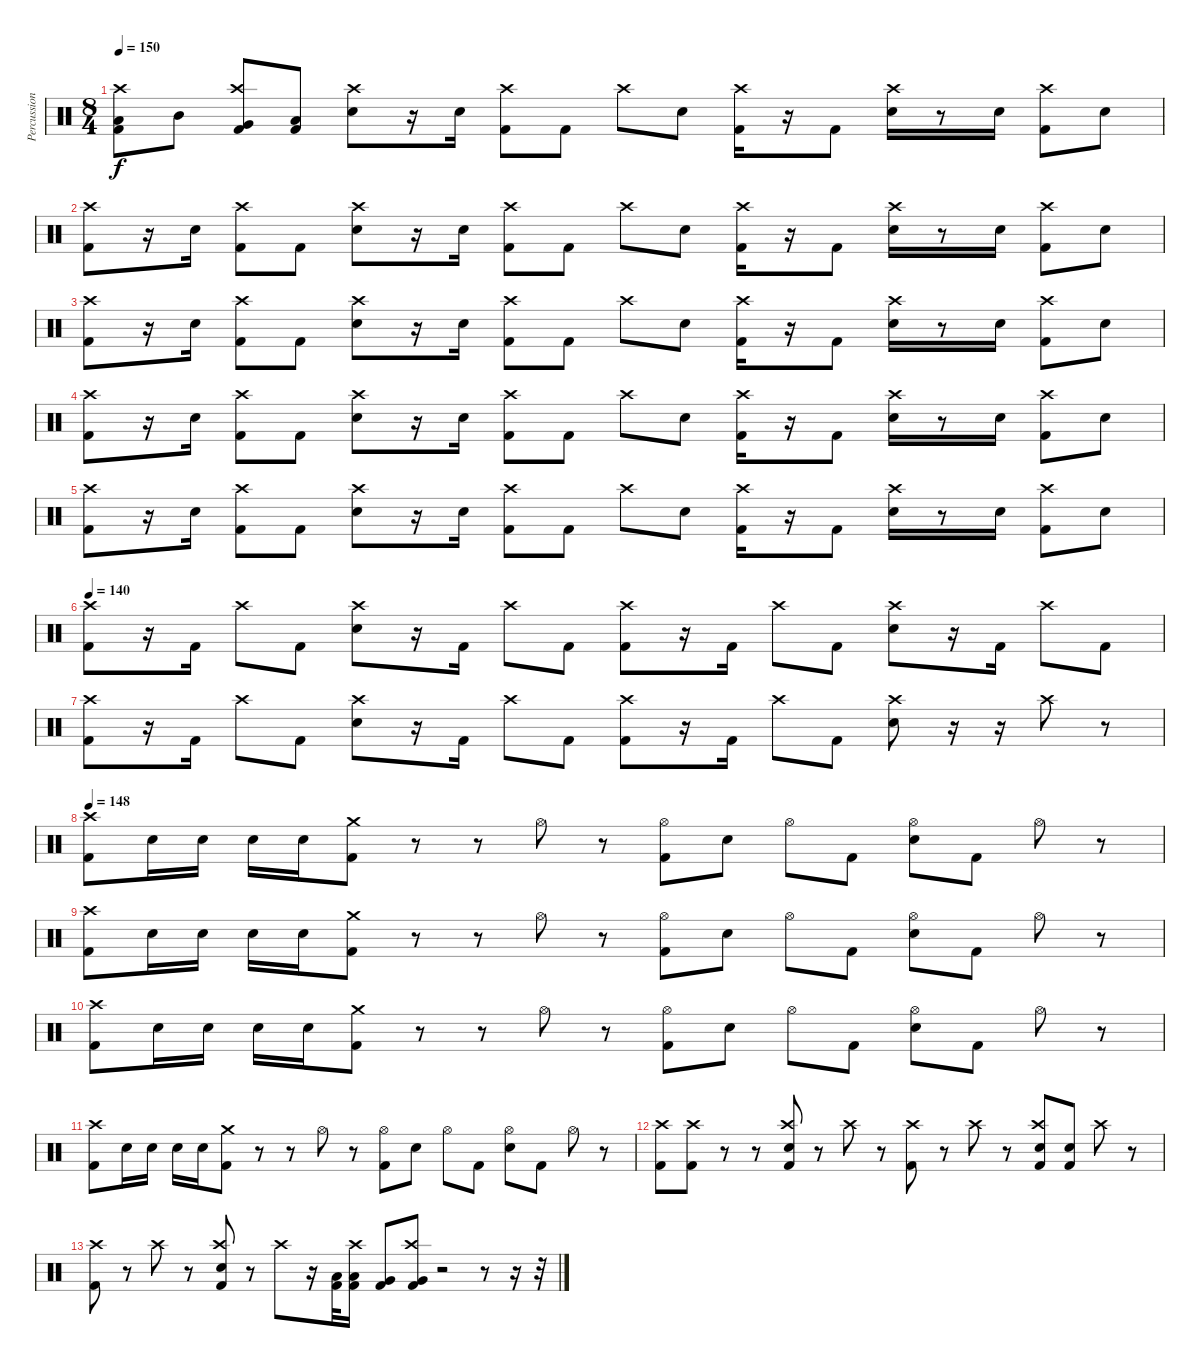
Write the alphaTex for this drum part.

\track ("Percussion" "Percussion") {instrument percussion}
\staff {score}
\articulation defaults
\ts (8 4)
\tempo 150
\clef neutral
\ks c
("Low Floor Tom (hit)" "Kick (hit) 2" "Crash high (hit)").8{dy f} "Mid Tom (hit)".8 ("Very Low Tom (hit)" "Kick (hit) 2" "Crash high (hit)").8 ("Low Floor Tom (hit)" "Kick (hit) 2").8 ("Electric Snare (hit)" "Crash high (hit)").8 r.16 "Electric Snare (hit)".16 ("Kick (hit) 2" "Crash high (hit)").8 "Kick (hit) 2".8 "Crash high (hit)".8 "Electric Snare (hit)".8 ("Kick (hit) 2" "Crash high (hit)").16 r.16 "Kick (hit) 2".8 ("Electric Snare (hit)" "Crash high (hit)").16 r.8 "Electric Snare (hit)".16 ("Kick (hit) 2" "Crash high (hit)").8 "Electric Snare (hit)".8 |
("Kick (hit) 2" "Crash high (hit)").8 r.16 "Electric Snare (hit)".16 ("Kick (hit) 2" "Crash high (hit)").8 "Kick (hit) 2".8 ("Electric Snare (hit)" "Crash high (hit)").8 r.16 "Electric Snare (hit)".16 ("Kick (hit) 2" "Crash high (hit)").8 "Kick (hit) 2".8 "Crash high (hit)".8 "Electric Snare (hit)".8 ("Kick (hit) 2" "Crash high (hit)").16 r.16 "Kick (hit) 2".8 ("Electric Snare (hit)" "Crash high (hit)").16 r.8 "Electric Snare (hit)".16 ("Kick (hit) 2" "Crash high (hit)").8 "Electric Snare (hit)".8 |
("Kick (hit) 2" "Crash high (hit)").8 r.16 "Electric Snare (hit)".16 ("Kick (hit) 2" "Crash high (hit)").8 "Kick (hit) 2".8 ("Electric Snare (hit)" "Crash high (hit)").8 r.16 "Electric Snare (hit)".16 ("Kick (hit) 2" "Crash high (hit)").8 "Kick (hit) 2".8 "Crash high (hit)".8 "Electric Snare (hit)".8 ("Kick (hit) 2" "Crash high (hit)").16 r.16 "Kick (hit) 2".8 ("Electric Snare (hit)" "Crash high (hit)").16 r.8 "Electric Snare (hit)".16 ("Kick (hit) 2" "Crash high (hit)").8 "Electric Snare (hit)".8 |
("Kick (hit) 2" "Crash high (hit)").8 r.16 "Electric Snare (hit)".16 ("Kick (hit) 2" "Crash high (hit)").8 "Kick (hit) 2".8 ("Electric Snare (hit)" "Crash high (hit)").8 r.16 "Electric Snare (hit)".16 ("Kick (hit) 2" "Crash high (hit)").8 "Kick (hit) 2".8 "Crash high (hit)".8 "Electric Snare (hit)".8 ("Kick (hit) 2" "Crash high (hit)").16 r.16 "Kick (hit) 2".8 ("Electric Snare (hit)" "Crash high (hit)").16 r.8 "Electric Snare (hit)".16 ("Kick (hit) 2" "Crash high (hit)").8 "Electric Snare (hit)".8 |
("Kick (hit) 2" "Crash high (hit)").8 r.16 "Electric Snare (hit)".16 ("Kick (hit) 2" "Crash high (hit)").8 "Kick (hit) 2".8 ("Electric Snare (hit)" "Crash high (hit)").8 r.16 "Electric Snare (hit)".16 ("Kick (hit) 2" "Crash high (hit)").8 "Kick (hit) 2".8 "Crash high (hit)".8 "Electric Snare (hit)".8 ("Kick (hit) 2" "Crash high (hit)").16 r.16 "Kick (hit) 2".8 ("Electric Snare (hit)" "Crash high (hit)").16 r.8 "Electric Snare (hit)".16 ("Kick (hit) 2" "Crash high (hit)").8 "Electric Snare (hit)".8 |
\tempo 145
\tempo 140
("Crash high (hit)" "Kick (hit) 2").8 r.16 "Kick (hit) 2".16 "Crash high (hit)".8 "Kick (hit) 2".8 ("Electric Snare (hit)" "Crash high (hit)").8 r.16 "Kick (hit) 2".16 "Crash high (hit)".8 "Kick (hit) 2".8 ("Crash high (hit)" "Kick (hit) 2").8 r.16 "Kick (hit) 2".16 "Crash high (hit)".8 "Kick (hit) 2".8 ("Electric Snare (hit)" "Crash high (hit)").8 r.16 "Kick (hit) 2".16 "Crash high (hit)".8 "Kick (hit) 2".8 |
("Crash high (hit)" "Kick (hit) 2").8 r.16 "Kick (hit) 2".16 "Crash high (hit)".8 "Kick (hit) 2".8 ("Electric Snare (hit)" "Crash high (hit)").8 r.16 "Kick (hit) 2".16 "Crash high (hit)".8 "Kick (hit) 2".8 ("Crash high (hit)" "Kick (hit) 2").8 r.16 "Kick (hit) 2".16 "Crash high (hit)".8 "Kick (hit) 2".8 ("Electric Snare (hit)" "Crash high (hit)").8 r.16 r.16 "Crash high (hit)".8 r.8 |
\tempo 148
("Crash high (hit)" "Kick (hit) 2").8 "Electric Snare (hit)".16 "Electric Snare (hit)".16 "Electric Snare (hit)".16 "Electric Snare (hit)".16 ("Crash medium (hit)" "Kick (hit) 2").8 r.8 r.8 "Hi-Hat (open)".8 r.8 ("Hi-Hat (open)" "Kick (hit) 2").8 "Electric Snare (hit)".8 "Hi-Hat (open)".8 "Kick (hit) 2".8 ("Electric Snare (hit)" "Hi-Hat (open)").8 "Kick (hit) 2".8 "Hi-Hat (open)".8 r.8 |
("Crash high (hit)" "Kick (hit) 2").8 "Electric Snare (hit)".16 "Electric Snare (hit)".16 "Electric Snare (hit)".16 "Electric Snare (hit)".16 ("Crash medium (hit)" "Kick (hit) 2").8 r.8 r.8 "Hi-Hat (open)".8 r.8 ("Hi-Hat (open)" "Kick (hit) 2").8 "Electric Snare (hit)".8 "Hi-Hat (open)".8 "Kick (hit) 2".8 ("Electric Snare (hit)" "Hi-Hat (open)").8 "Kick (hit) 2".8 "Hi-Hat (open)".8 r.8 |
("Crash high (hit)" "Kick (hit) 2").8 "Electric Snare (hit)".16 "Electric Snare (hit)".16 "Electric Snare (hit)".16 "Electric Snare (hit)".16 ("Crash medium (hit)" "Kick (hit) 2").8 r.8 r.8 "Hi-Hat (open)".8 r.8 ("Hi-Hat (open)" "Kick (hit) 2").8 "Electric Snare (hit)".8 "Hi-Hat (open)".8 "Kick (hit) 2".8 ("Electric Snare (hit)" "Hi-Hat (open)").8 "Kick (hit) 2".8 "Hi-Hat (open)".8 r.8 |
("Crash high (hit)" "Kick (hit) 2").8 "Electric Snare (hit)".16 "Electric Snare (hit)".16 "Electric Snare (hit)".16 "Electric Snare (hit)".16 ("Crash medium (hit)" "Kick (hit) 2").8 r.8 r.8 "Hi-Hat (open)".8 r.8 ("Hi-Hat (open)" "Kick (hit) 2").8 "Electric Snare (hit)".8 "Hi-Hat (open)".8 "Kick (hit) 2".8 ("Electric Snare (hit)" "Hi-Hat (open)").8 "Kick (hit) 2".8 "Hi-Hat (open)".8 r.8 |
("Crash high (hit)" "Kick (hit) 2").8 ("Crash high (hit)" "Kick (hit) 2").8 r.8 r.8 ("Electric Snare (hit)" "Crash high (hit)" "Kick (hit) 2").8 r.8 "Crash high (hit)".8 r.8 ("Crash high (hit)" "Kick (hit) 2").8 r.8 "Crash high (hit)".8 r.8 ("Electric Snare (hit)" "Crash high (hit)" "Kick (hit) 2").8 ("Electric Snare (hit)" "Kick (hit) 2").8 "Crash high (hit)".8 r.8 |
("Crash high (hit)" "Kick (hit) 2").8 r.8 "Crash high (hit)".8 r.8 ("Electric Snare (hit)" "Crash high (hit)" "Kick (hit) 2").8 r.8 "Crash high (hit)".8 r.16 ("Low Floor Tom (hit)" "Kick (hit) 2").32 ("Low Floor Tom (hit)" "Crash high (hit)" "Kick (hit) 2").16 ("Very Low Tom (hit)" "Kick (hit) 2").8 ("Very Low Tom (hit)" "Crash high (hit)" "Kick (hit) 2").8 r.2 r.8 r.16 r.32
